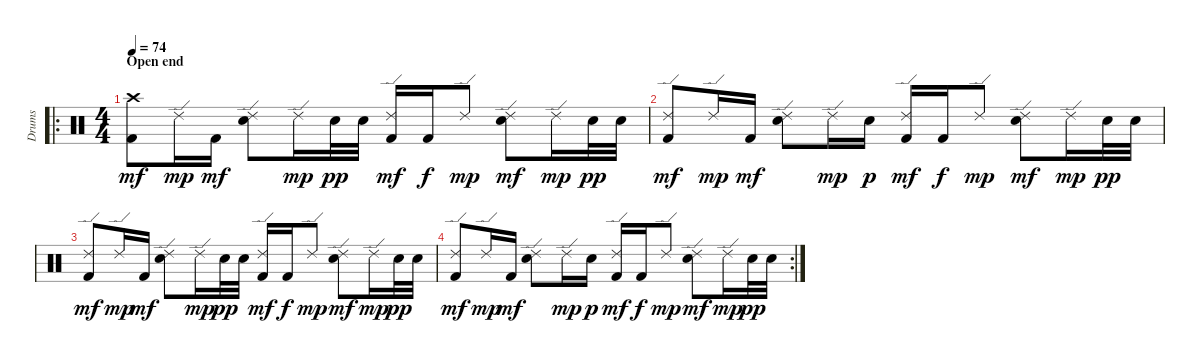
\track ("Drums" "Drums") {instrument percussion}
\staff {score}
\articulation defaults
\ro
\ts (4 4)
\section ("" "Open end")
\tempo 74
\clef neutral
\ks c
("Crash high (hit)" "Kick (hit) 2").8{dy mf} "Ride (edge) 2".16{dy mp} "Kick (hit) 2".16{dy mf} ("Ride (edge) 2" "Electric Snare (hit)").8 "Ride (edge) 2".16{dy mp} "Electric Snare (hit)".32{dy pp} "Electric Snare (hit)".32 ("Ride (edge) 2" "Kick (hit) 2").16{dy mf} "Kick (hit) 2".16{dy f} "Ride (edge) 2".8{dy mp} ("Ride (edge) 2" "Electric Snare (hit)").8{dy mf} "Ride (edge) 2".16{dy mp} "Electric Snare (hit)".32{dy pp} "Electric Snare (hit)".32 |
("Ride (edge) 2" "Kick (hit) 2").8{dy mf} "Ride (edge) 2".16{dy mp} "Kick (hit) 2".16{dy mf} ("Ride (edge) 2" "Electric Snare (hit)").8 "Ride (edge) 2".16{dy mp} "Electric Snare (hit)".16{dy p} ("Ride (edge) 2" "Kick (hit) 2").16{dy mf} "Kick (hit) 2".16{dy f} "Ride (edge) 2".8{dy mp} ("Ride (edge) 2" "Electric Snare (hit)").8{dy mf} "Ride (edge) 2".16{dy mp} "Electric Snare (hit)".32{dy pp} "Electric Snare (hit)".32 |
("Ride (edge) 2" "Kick (hit) 2").8{dy mf} "Ride (edge) 2".16{dy mp} "Kick (hit) 2".16{dy mf} ("Ride (edge) 2" "Electric Snare (hit)").8 "Ride (edge) 2".16{dy mp} "Electric Snare (hit)".32{dy pp} "Electric Snare (hit)".32 ("Ride (edge) 2" "Kick (hit) 2").16{dy mf} "Kick (hit) 2".16{dy f} "Ride (edge) 2".8{dy mp} ("Ride (edge) 2" "Electric Snare (hit)").8{dy mf} "Ride (edge) 2".16{dy mp} "Electric Snare (hit)".32{dy pp} "Electric Snare (hit)".32 |
\rc 2
("Ride (edge) 2" "Kick (hit) 2").8{dy mf} "Ride (edge) 2".16{dy mp} "Kick (hit) 2".16{dy mf} ("Ride (edge) 2" "Electric Snare (hit)").8 "Ride (edge) 2".16{dy mp} "Electric Snare (hit)".16{dy p} ("Ride (edge) 2" "Kick (hit) 2").16{dy mf} "Kick (hit) 2".16{dy f} "Ride (edge) 2".8{dy mp} ("Ride (edge) 2" "Electric Snare (hit)").8{dy mf} "Ride (edge) 2".16{dy mp} "Electric Snare (hit)".32{dy pp} "Electric Snare (hit)".32
